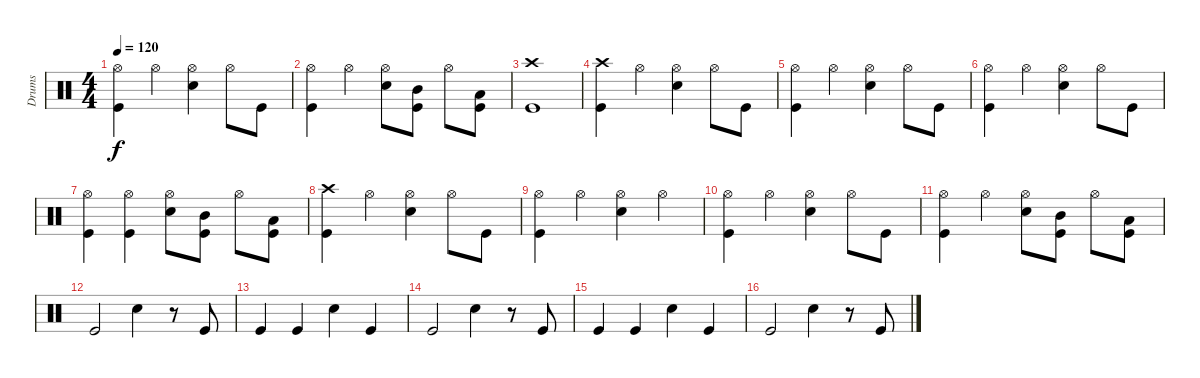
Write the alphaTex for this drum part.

\track ("Drums" "Drums") {instrument percussion}
\staff {score}
\articulation defaults
\ts (4 4)
\tempo 120
\clef neutral
\ks c
("Hi-Hat (open)" "Kick (hit)").4{dy f} "Hi-Hat (open)".4 ("Hi-Hat (open)" "Snare (hit) 2").4 "Hi-Hat (open)".8 "Kick (hit)".8 |
("Hi-Hat (open)" "Kick (hit)").4 "Hi-Hat (open)".4 ("Hi-Hat (open)" "Snare (hit) 2").8 ("Mid Tom (hit)" "Kick (hit)").8 "Hi-Hat (open)".8 ("Low Tom (hit)" "Kick (hit)").8 |
("Crash high (hit)" "Kick (hit)").1 |
("Crash high (hit)" "Kick (hit)").4 "Hi-Hat (open)".4 ("Hi-Hat (open)" "Snare (hit) 2").4 "Hi-Hat (open)".8 "Kick (hit)".8 |
("Hi-Hat (open)" "Kick (hit)").4 "Hi-Hat (open)".4 ("Hi-Hat (open)" "Snare (hit) 2").4 "Hi-Hat (open)".8 "Kick (hit)".8 |
("Hi-Hat (open)" "Kick (hit)").4 "Hi-Hat (open)".4 ("Hi-Hat (open)" "Snare (hit) 2").4 "Hi-Hat (open)".8 "Kick (hit)".8 |
("Hi-Hat (open)" "Kick (hit)").4 ("Hi-Hat (open)" "Kick (hit)").4 ("Hi-Hat (open)" "Snare (hit) 2").8 ("Mid Tom (hit)" "Kick (hit)").8 "Hi-Hat (open)".8 ("Low Tom (hit)" "Kick (hit)").8 |
("Crash high (hit)" "Kick (hit)").4 "Hi-Hat (open)".4 ("Hi-Hat (open)" "Snare (hit) 2").4 "Hi-Hat (open)".8 "Kick (hit)".8 |
("Hi-Hat (open)" "Kick (hit)").4 "Hi-Hat (open)".4 ("Hi-Hat (open)" "Snare (hit) 2").4 "Hi-Hat (open)".4 |
("Hi-Hat (open)" "Kick (hit)").4 "Hi-Hat (open)".4 ("Hi-Hat (open)" "Snare (hit) 2").4 "Hi-Hat (open)".8 "Kick (hit)".8 |
("Hi-Hat (open)" "Kick (hit)").4 "Hi-Hat (open)".4 ("Hi-Hat (open)" "Snare (hit) 2").8 ("Mid Tom (hit)" "Kick (hit)").8 "Hi-Hat (open)".8 ("Low Tom (hit)" "Kick (hit)").8 |
"Kick (hit)".2 "Snare (hit) 2".4 r.8 "Kick (hit)".8 |
"Kick (hit)".4 "Kick (hit)".4 "Snare (hit) 2".4 "Kick (hit)".4 |
"Kick (hit)".2 "Snare (hit) 2".4 r.8 "Kick (hit)".8 |
"Kick (hit)".4 "Kick (hit)".4 "Snare (hit) 2".4 "Kick (hit)".4 |
"Kick (hit)".2 "Snare (hit) 2".4 r.8 "Kick (hit)".8
